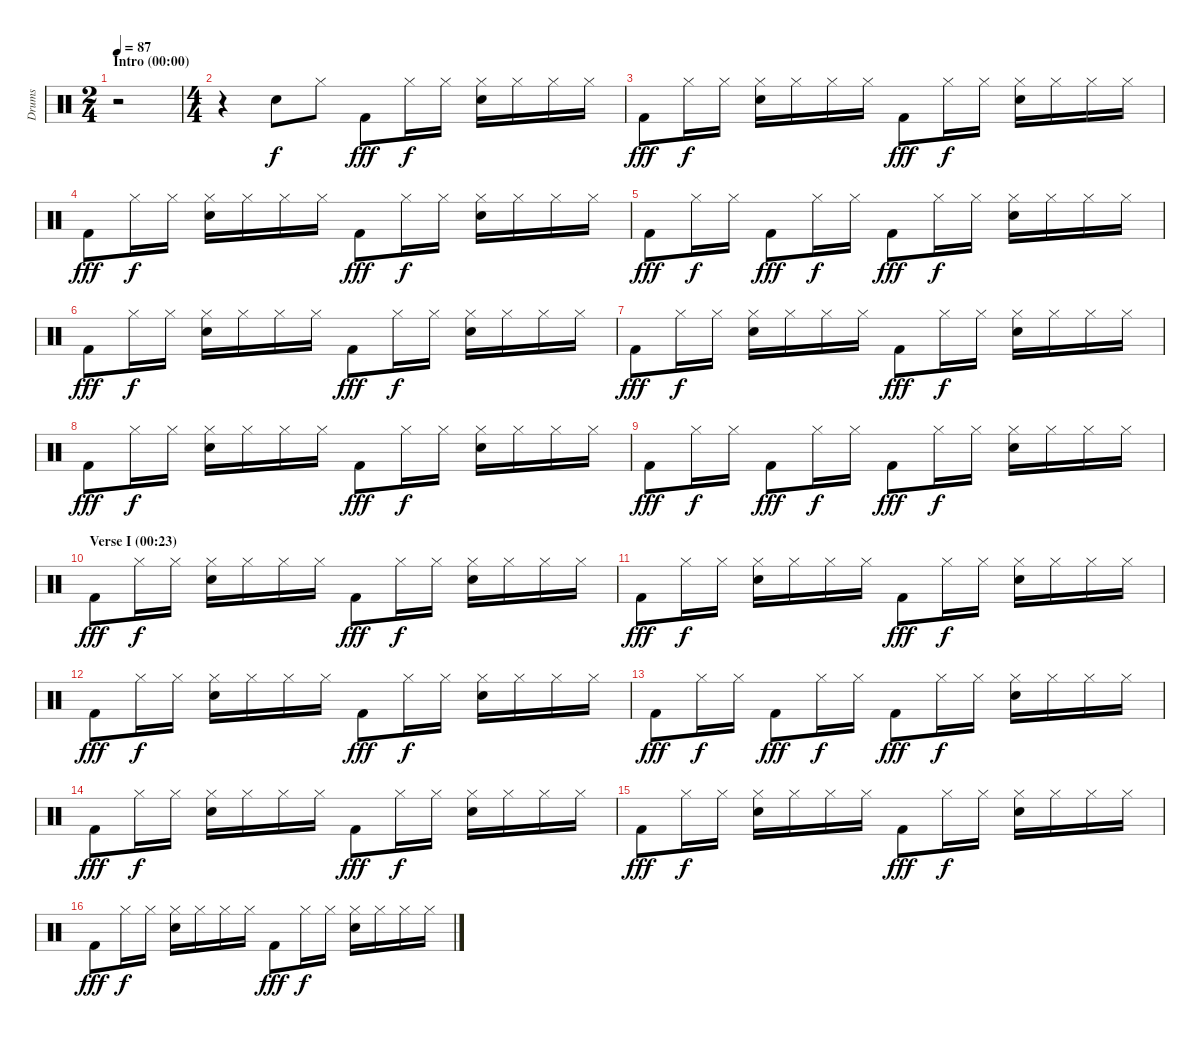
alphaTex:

\track ("Drums" "Drums") {instrument percussion}
\staff {score}
\articulation defaults
\ts (2 4)
\section ("" "Intro (00:00)")
\tempo 87
\clef neutral
\ks c
r.2{dy f} |
\ts (4 4)
r.4 "Electric Snare (hit)".8 "Hi-Hat (closed)".8 "Kick (hit) 2".8{dy fff} "Hi-Hat (closed)".16{dy f} "Hi-Hat (closed)".16 ("Hi-Hat (closed)" "Electric Snare (hit)").16 "Hi-Hat (closed)".16 "Hi-Hat (closed)".16 "Hi-Hat (closed)".16 |
"Kick (hit) 2".8{dy fff} "Hi-Hat (closed)".16{dy f} "Hi-Hat (closed)".16 ("Hi-Hat (closed)" "Electric Snare (hit)").16 "Hi-Hat (closed)".16 "Hi-Hat (closed)".16 "Hi-Hat (closed)".16 "Kick (hit) 2".8{dy fff} "Hi-Hat (closed)".16{dy f} "Hi-Hat (closed)".16 ("Hi-Hat (closed)" "Electric Snare (hit)").16 "Hi-Hat (closed)".16 "Hi-Hat (closed)".16 "Hi-Hat (closed)".16 |
"Kick (hit) 2".8{dy fff} "Hi-Hat (closed)".16{dy f} "Hi-Hat (closed)".16 ("Hi-Hat (closed)" "Electric Snare (hit)").16 "Hi-Hat (closed)".16 "Hi-Hat (closed)".16 "Hi-Hat (closed)".16 "Kick (hit) 2".8{dy fff} "Hi-Hat (closed)".16{dy f} "Hi-Hat (closed)".16 ("Hi-Hat (closed)" "Electric Snare (hit)").16 "Hi-Hat (closed)".16 "Hi-Hat (closed)".16 "Hi-Hat (closed)".16 |
"Kick (hit) 2".8{dy fff} "Hi-Hat (closed)".16{dy f} "Hi-Hat (closed)".16 "Kick (hit) 2".8{dy fff} "Hi-Hat (closed)".16{dy f} "Hi-Hat (closed)".16 "Kick (hit) 2".8{dy fff} "Hi-Hat (closed)".16{dy f} "Hi-Hat (closed)".16 ("Hi-Hat (closed)" "Electric Snare (hit)").16 "Hi-Hat (closed)".16 "Hi-Hat (closed)".16 "Hi-Hat (closed)".16 |
"Kick (hit) 2".8{dy fff} "Hi-Hat (closed)".16{dy f} "Hi-Hat (closed)".16 ("Hi-Hat (closed)" "Electric Snare (hit)").16 "Hi-Hat (closed)".16 "Hi-Hat (closed)".16 "Hi-Hat (closed)".16 "Kick (hit) 2".8{dy fff} "Hi-Hat (closed)".16{dy f} "Hi-Hat (closed)".16 ("Hi-Hat (closed)" "Electric Snare (hit)").16 "Hi-Hat (closed)".16 "Hi-Hat (closed)".16 "Hi-Hat (closed)".16 |
"Kick (hit) 2".8{dy fff} "Hi-Hat (closed)".16{dy f} "Hi-Hat (closed)".16 ("Hi-Hat (closed)" "Electric Snare (hit)").16 "Hi-Hat (closed)".16 "Hi-Hat (closed)".16 "Hi-Hat (closed)".16 "Kick (hit) 2".8{dy fff} "Hi-Hat (closed)".16{dy f} "Hi-Hat (closed)".16 ("Hi-Hat (closed)" "Electric Snare (hit)").16 "Hi-Hat (closed)".16 "Hi-Hat (closed)".16 "Hi-Hat (closed)".16 |
"Kick (hit) 2".8{dy fff} "Hi-Hat (closed)".16{dy f} "Hi-Hat (closed)".16 ("Hi-Hat (closed)" "Electric Snare (hit)").16 "Hi-Hat (closed)".16 "Hi-Hat (closed)".16 "Hi-Hat (closed)".16 "Kick (hit) 2".8{dy fff} "Hi-Hat (closed)".16{dy f} "Hi-Hat (closed)".16 ("Hi-Hat (closed)" "Electric Snare (hit)").16 "Hi-Hat (closed)".16 "Hi-Hat (closed)".16 "Hi-Hat (closed)".16 |
"Kick (hit) 2".8{dy fff} "Hi-Hat (closed)".16{dy f} "Hi-Hat (closed)".16 "Kick (hit) 2".8{dy fff} "Hi-Hat (closed)".16{dy f} "Hi-Hat (closed)".16 "Kick (hit) 2".8{dy fff} "Hi-Hat (closed)".16{dy f} "Hi-Hat (closed)".16 ("Hi-Hat (closed)" "Electric Snare (hit)").16 "Hi-Hat (closed)".16 "Hi-Hat (closed)".16 "Hi-Hat (closed)".16 |
\section ("" "Verse I (00:23)")
"Kick (hit) 2".8{dy fff} "Hi-Hat (closed)".16{dy f} "Hi-Hat (closed)".16 ("Hi-Hat (closed)" "Electric Snare (hit)").16 "Hi-Hat (closed)".16 "Hi-Hat (closed)".16 "Hi-Hat (closed)".16 "Kick (hit) 2".8{dy fff} "Hi-Hat (closed)".16{dy f} "Hi-Hat (closed)".16 ("Hi-Hat (closed)" "Electric Snare (hit)").16 "Hi-Hat (closed)".16 "Hi-Hat (closed)".16 "Hi-Hat (closed)".16 |
"Kick (hit) 2".8{dy fff} "Hi-Hat (closed)".16{dy f} "Hi-Hat (closed)".16 ("Hi-Hat (closed)" "Electric Snare (hit)").16 "Hi-Hat (closed)".16 "Hi-Hat (closed)".16 "Hi-Hat (closed)".16 "Kick (hit) 2".8{dy fff} "Hi-Hat (closed)".16{dy f} "Hi-Hat (closed)".16 ("Hi-Hat (closed)" "Electric Snare (hit)").16 "Hi-Hat (closed)".16 "Hi-Hat (closed)".16 "Hi-Hat (closed)".16 |
"Kick (hit) 2".8{dy fff} "Hi-Hat (closed)".16{dy f} "Hi-Hat (closed)".16 ("Hi-Hat (closed)" "Electric Snare (hit)").16 "Hi-Hat (closed)".16 "Hi-Hat (closed)".16 "Hi-Hat (closed)".16 "Kick (hit) 2".8{dy fff} "Hi-Hat (closed)".16{dy f} "Hi-Hat (closed)".16 ("Hi-Hat (closed)" "Electric Snare (hit)").16 "Hi-Hat (closed)".16 "Hi-Hat (closed)".16 "Hi-Hat (closed)".16 |
"Kick (hit) 2".8{dy fff} "Hi-Hat (closed)".16{dy f} "Hi-Hat (closed)".16 "Kick (hit) 2".8{dy fff} "Hi-Hat (closed)".16{dy f} "Hi-Hat (closed)".16 "Kick (hit) 2".8{dy fff} "Hi-Hat (closed)".16{dy f} "Hi-Hat (closed)".16 ("Hi-Hat (closed)" "Electric Snare (hit)").16 "Hi-Hat (closed)".16 "Hi-Hat (closed)".16 "Hi-Hat (closed)".16 |
"Kick (hit) 2".8{dy fff} "Hi-Hat (closed)".16{dy f} "Hi-Hat (closed)".16 ("Hi-Hat (closed)" "Electric Snare (hit)").16 "Hi-Hat (closed)".16 "Hi-Hat (closed)".16 "Hi-Hat (closed)".16 "Kick (hit) 2".8{dy fff} "Hi-Hat (closed)".16{dy f} "Hi-Hat (closed)".16 ("Hi-Hat (closed)" "Electric Snare (hit)").16 "Hi-Hat (closed)".16 "Hi-Hat (closed)".16 "Hi-Hat (closed)".16 |
"Kick (hit) 2".8{dy fff} "Hi-Hat (closed)".16{dy f} "Hi-Hat (closed)".16 ("Hi-Hat (closed)" "Electric Snare (hit)").16 "Hi-Hat (closed)".16 "Hi-Hat (closed)".16 "Hi-Hat (closed)".16 "Kick (hit) 2".8{dy fff} "Hi-Hat (closed)".16{dy f} "Hi-Hat (closed)".16 ("Hi-Hat (closed)" "Electric Snare (hit)").16 "Hi-Hat (closed)".16 "Hi-Hat (closed)".16 "Hi-Hat (closed)".16 |
"Kick (hit) 2".8{dy fff} "Hi-Hat (closed)".16{dy f} "Hi-Hat (closed)".16 ("Hi-Hat (closed)" "Electric Snare (hit)").16 "Hi-Hat (closed)".16 "Hi-Hat (closed)".16 "Hi-Hat (closed)".16 "Kick (hit) 2".8{dy fff} "Hi-Hat (closed)".16{dy f} "Hi-Hat (closed)".16 ("Hi-Hat (closed)" "Electric Snare (hit)").16 "Hi-Hat (closed)".16 "Hi-Hat (closed)".16 "Hi-Hat (closed)".16
